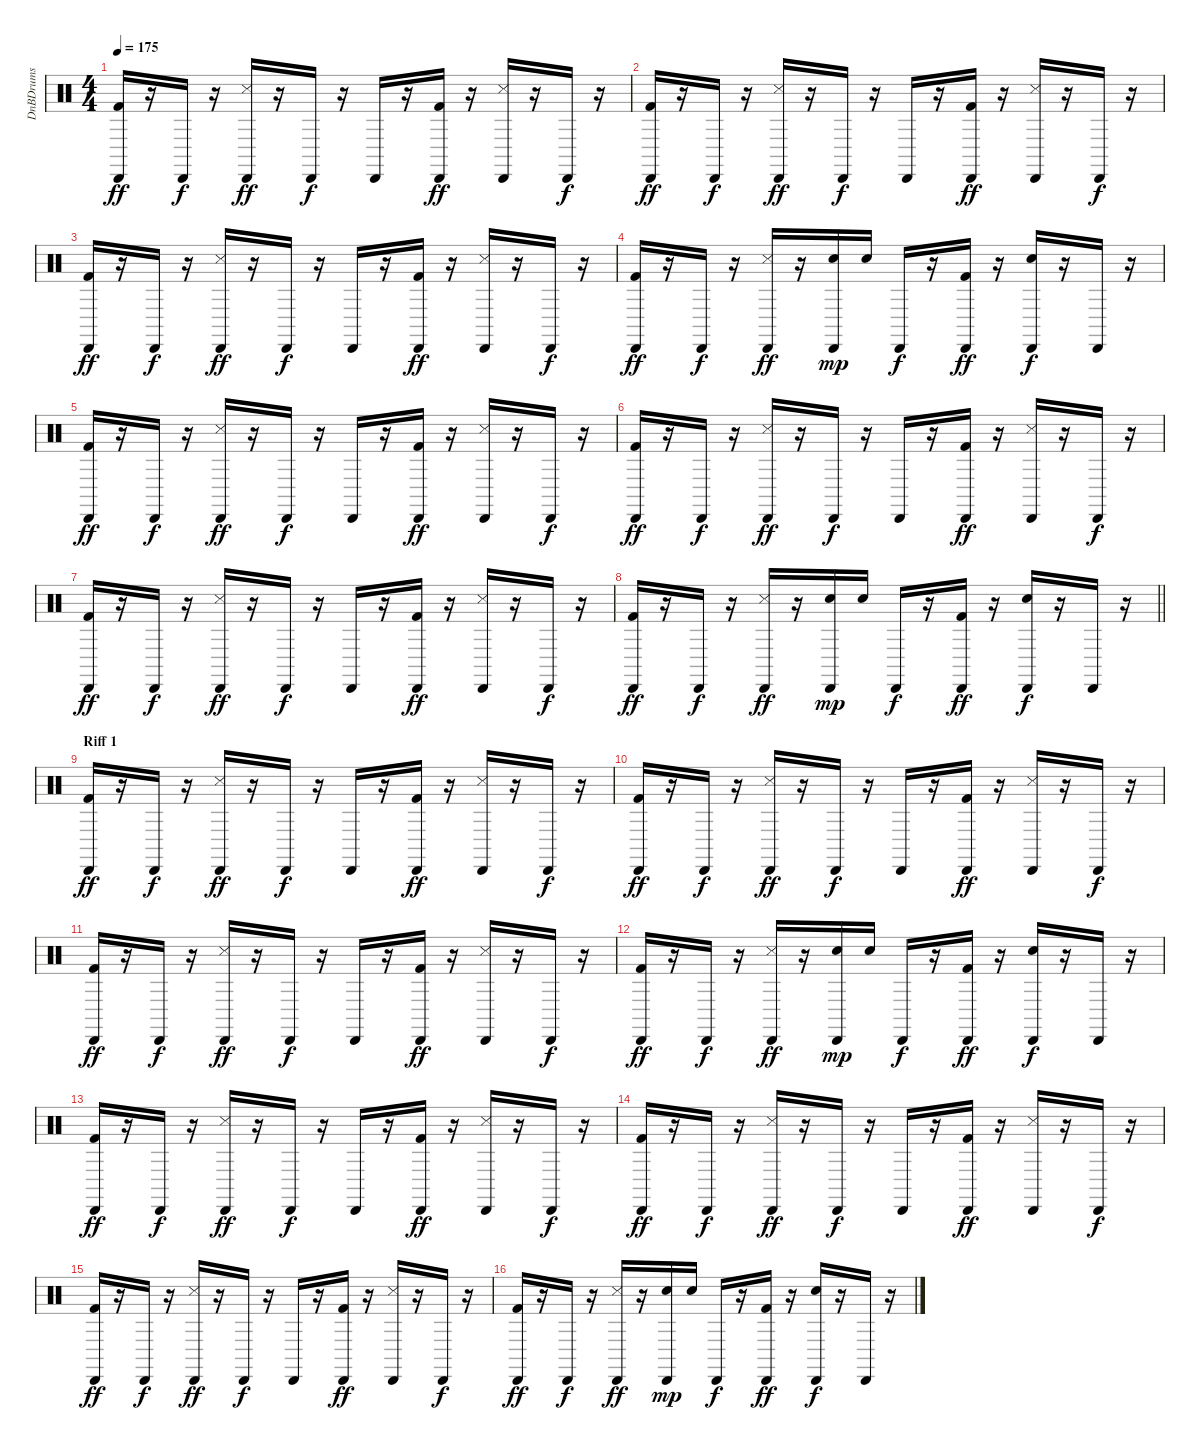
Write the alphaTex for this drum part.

\track ("DnBDrums" "DnBDrums") {instrument percussion}
\staff {score}
\articulation defaults
\ts (4 4)
\tempo 175
\clef neutral
\ks c
("Kick (hit) 2" "Cabasa (hit)").16{dy ff} r.16 "Cabasa (hit)".16{dy f} r.16 ("Snare (side stick) 3" "Cabasa (hit)").16{dy ff} r.16 "Cabasa (hit)".16{dy f} r.16 "Cabasa (hit)".16 r.16 ("Kick (hit) 2" "Cabasa (hit)").16{dy ff} r.16 ("Snare (side stick) 3" "Cabasa (hit)").16 r.16 "Cabasa (hit)".16{dy f} r.16 |
("Kick (hit) 2" "Cabasa (hit)").16{dy ff} r.16 "Cabasa (hit)".16{dy f} r.16 ("Snare (side stick) 3" "Cabasa (hit)").16{dy ff} r.16 "Cabasa (hit)".16{dy f} r.16 "Cabasa (hit)".16 r.16 ("Kick (hit) 2" "Cabasa (hit)").16{dy ff} r.16 ("Snare (side stick) 3" "Cabasa (hit)").16 r.16 "Cabasa (hit)".16{dy f} r.16 |
("Kick (hit) 2" "Cabasa (hit)").16{dy ff} r.16 "Cabasa (hit)".16{dy f} r.16 ("Snare (side stick) 3" "Cabasa (hit)").16{dy ff} r.16 "Cabasa (hit)".16{dy f} r.16 "Cabasa (hit)".16 r.16 ("Kick (hit) 2" "Cabasa (hit)").16{dy ff} r.16 ("Snare (side stick) 3" "Cabasa (hit)").16 r.16 "Cabasa (hit)".16{dy f} r.16 |
("Kick (hit) 2" "Cabasa (hit)").16{dy ff} r.16 "Cabasa (hit)".16{dy f} r.16 ("Snare (side stick) 3" "Cabasa (hit)").16{dy ff} r.16 ("Electric Snare (hit)" "Cabasa (hit)").16{dy mp} "Electric Snare (hit)".16 "Cabasa (hit)".16{dy f} r.16 ("Kick (hit) 2" "Cabasa (hit)").16{dy ff} r.16 ("Electric Snare (hit)" "Cabasa (hit)").16{dy f} r.16 "Cabasa (hit)".16 r.16 |
("Kick (hit) 2" "Cabasa (hit)").16{dy ff} r.16 "Cabasa (hit)".16{dy f} r.16 ("Snare (side stick) 3" "Cabasa (hit)").16{dy ff} r.16 "Cabasa (hit)".16{dy f} r.16 "Cabasa (hit)".16 r.16 ("Kick (hit) 2" "Cabasa (hit)").16{dy ff} r.16 ("Snare (side stick) 3" "Cabasa (hit)").16 r.16 "Cabasa (hit)".16{dy f} r.16 |
("Kick (hit) 2" "Cabasa (hit)").16{dy ff} r.16 "Cabasa (hit)".16{dy f} r.16 ("Snare (side stick) 3" "Cabasa (hit)").16{dy ff} r.16 "Cabasa (hit)".16{dy f} r.16 "Cabasa (hit)".16 r.16 ("Kick (hit) 2" "Cabasa (hit)").16{dy ff} r.16 ("Snare (side stick) 3" "Cabasa (hit)").16 r.16 "Cabasa (hit)".16{dy f} r.16 |
("Kick (hit) 2" "Cabasa (hit)").16{dy ff} r.16 "Cabasa (hit)".16{dy f} r.16 ("Snare (side stick) 3" "Cabasa (hit)").16{dy ff} r.16 "Cabasa (hit)".16{dy f} r.16 "Cabasa (hit)".16 r.16 ("Kick (hit) 2" "Cabasa (hit)").16{dy ff} r.16 ("Snare (side stick) 3" "Cabasa (hit)").16 r.16 "Cabasa (hit)".16{dy f} r.16 |
\barLineRight lightlight
("Kick (hit) 2" "Cabasa (hit)").16{dy ff} r.16 "Cabasa (hit)".16{dy f} r.16 ("Snare (side stick) 3" "Cabasa (hit)").16{dy ff} r.16 ("Electric Snare (hit)" "Cabasa (hit)").16{dy mp} "Electric Snare (hit)".16 "Cabasa (hit)".16{dy f} r.16 ("Kick (hit) 2" "Cabasa (hit)").16{dy ff} r.16 ("Electric Snare (hit)" "Cabasa (hit)").16{dy f} r.16 "Cabasa (hit)".16 r.16 |
\section ("" "Riff 1")
("Kick (hit) 2" "Cabasa (hit)").16{dy ff} r.16 "Cabasa (hit)".16{dy f} r.16 ("Snare (side stick) 3" "Cabasa (hit)").16{dy ff} r.16 "Cabasa (hit)".16{dy f} r.16 "Cabasa (hit)".16 r.16 ("Kick (hit) 2" "Cabasa (hit)").16{dy ff} r.16 ("Snare (side stick) 3" "Cabasa (hit)").16 r.16 "Cabasa (hit)".16{dy f} r.16 |
("Kick (hit) 2" "Cabasa (hit)").16{dy ff} r.16 "Cabasa (hit)".16{dy f} r.16 ("Snare (side stick) 3" "Cabasa (hit)").16{dy ff} r.16 "Cabasa (hit)".16{dy f} r.16 "Cabasa (hit)".16 r.16 ("Kick (hit) 2" "Cabasa (hit)").16{dy ff} r.16 ("Snare (side stick) 3" "Cabasa (hit)").16 r.16 "Cabasa (hit)".16{dy f} r.16 |
("Kick (hit) 2" "Cabasa (hit)").16{dy ff} r.16 "Cabasa (hit)".16{dy f} r.16 ("Snare (side stick) 3" "Cabasa (hit)").16{dy ff} r.16 "Cabasa (hit)".16{dy f} r.16 "Cabasa (hit)".16 r.16 ("Kick (hit) 2" "Cabasa (hit)").16{dy ff} r.16 ("Snare (side stick) 3" "Cabasa (hit)").16 r.16 "Cabasa (hit)".16{dy f} r.16 |
("Kick (hit) 2" "Cabasa (hit)").16{dy ff} r.16 "Cabasa (hit)".16{dy f} r.16 ("Snare (side stick) 3" "Cabasa (hit)").16{dy ff} r.16 ("Electric Snare (hit)" "Cabasa (hit)").16{dy mp} "Electric Snare (hit)".16 "Cabasa (hit)".16{dy f} r.16 ("Kick (hit) 2" "Cabasa (hit)").16{dy ff} r.16 ("Electric Snare (hit)" "Cabasa (hit)").16{dy f} r.16 "Cabasa (hit)".16 r.16 |
("Kick (hit) 2" "Cabasa (hit)").16{dy ff} r.16 "Cabasa (hit)".16{dy f} r.16 ("Snare (side stick) 3" "Cabasa (hit)").16{dy ff} r.16 "Cabasa (hit)".16{dy f} r.16 "Cabasa (hit)".16 r.16 ("Kick (hit) 2" "Cabasa (hit)").16{dy ff} r.16 ("Snare (side stick) 3" "Cabasa (hit)").16 r.16 "Cabasa (hit)".16{dy f} r.16 |
("Kick (hit) 2" "Cabasa (hit)").16{dy ff} r.16 "Cabasa (hit)".16{dy f} r.16 ("Snare (side stick) 3" "Cabasa (hit)").16{dy ff} r.16 "Cabasa (hit)".16{dy f} r.16 "Cabasa (hit)".16 r.16 ("Kick (hit) 2" "Cabasa (hit)").16{dy ff} r.16 ("Snare (side stick) 3" "Cabasa (hit)").16 r.16 "Cabasa (hit)".16{dy f} r.16 |
("Kick (hit) 2" "Cabasa (hit)").16{dy ff} r.16 "Cabasa (hit)".16{dy f} r.16 ("Snare (side stick) 3" "Cabasa (hit)").16{dy ff} r.16 "Cabasa (hit)".16{dy f} r.16 "Cabasa (hit)".16 r.16 ("Kick (hit) 2" "Cabasa (hit)").16{dy ff} r.16 ("Snare (side stick) 3" "Cabasa (hit)").16 r.16 "Cabasa (hit)".16{dy f} r.16 |
("Kick (hit) 2" "Cabasa (hit)").16{dy ff} r.16 "Cabasa (hit)".16{dy f} r.16 ("Snare (side stick) 3" "Cabasa (hit)").16{dy ff} r.16 ("Electric Snare (hit)" "Cabasa (hit)").16{dy mp} "Electric Snare (hit)".16 "Cabasa (hit)".16{dy f} r.16 ("Kick (hit) 2" "Cabasa (hit)").16{dy ff} r.16 ("Electric Snare (hit)" "Cabasa (hit)").16{dy f} r.16 "Cabasa (hit)".16 r.16
